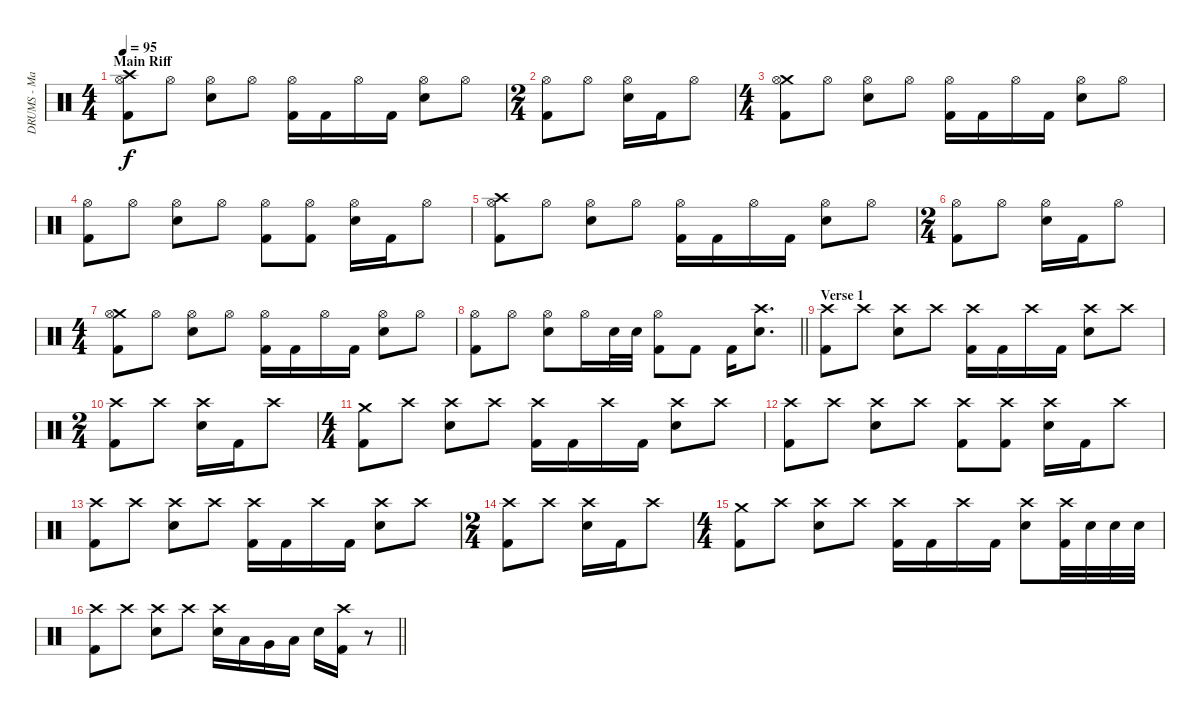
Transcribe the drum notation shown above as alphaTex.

\track ("DRUMS - Mario Duplantier" "DRUMS - Ma") {instrument percussion}
\staff {score}
\articulation defaults
\ts (4 4)
\section ("" "Main Riff")
\tempo 95
\clef neutral
\ks c
("Crash high (hit)" "Hi-Hat (open)" "Kick (hit) 2").8{dy f} "Hi-Hat (open)".8 ("Hi-Hat (open)" "Electric Snare (hit)").8 "Hi-Hat (open)".8 ("Hi-Hat (open)" "Kick (hit) 2").16 "Kick (hit) 2".16 "Hi-Hat (open)".16 "Kick (hit) 2".16 ("Hi-Hat (open)" "Electric Snare (hit)").8 "Hi-Hat (open)".8 |
\ts (2 4)
("Hi-Hat (open)" "Kick (hit) 2").8 "Hi-Hat (open)".8 ("Hi-Hat (open)" "Electric Snare (hit)").16 "Kick (hit) 2".16 "Hi-Hat (open)".8 |
\ts (4 4)
("Crash medium (hit)" "Hi-Hat (open)" "Kick (hit) 2").8 "Hi-Hat (open)".8 ("Hi-Hat (open)" "Electric Snare (hit)").8 "Hi-Hat (open)".8 ("Hi-Hat (open)" "Kick (hit) 2").16 "Kick (hit) 2".16 "Hi-Hat (open)".16 "Kick (hit) 2".16 ("Hi-Hat (open)" "Electric Snare (hit)").8 "Hi-Hat (open)".8 |
("Hi-Hat (open)" "Kick (hit) 2").8 "Hi-Hat (open)".8 ("Hi-Hat (open)" "Electric Snare (hit)").8 "Hi-Hat (open)".8 ("Hi-Hat (open)" "Kick (hit) 2").8 ("Hi-Hat (open)" "Kick (hit) 2").8 ("Hi-Hat (open)" "Electric Snare (hit)").16 "Kick (hit) 2".16 "Hi-Hat (open)".8 |
("Crash high (hit)" "Hi-Hat (open)" "Kick (hit) 2").8 "Hi-Hat (open)".8 ("Hi-Hat (open)" "Electric Snare (hit)").8 "Hi-Hat (open)".8 ("Hi-Hat (open)" "Kick (hit) 2").16 "Kick (hit) 2".16 "Hi-Hat (open)".16 "Kick (hit) 2".16 ("Hi-Hat (open)" "Electric Snare (hit)").8 "Hi-Hat (open)".8 |
\ts (2 4)
("Hi-Hat (open)" "Kick (hit) 2").8 "Hi-Hat (open)".8 ("Hi-Hat (open)" "Electric Snare (hit)").16 "Kick (hit) 2".16 "Hi-Hat (open)".8 |
\ts (4 4)
("Crash medium (hit)" "Hi-Hat (open)" "Kick (hit) 2").8 "Hi-Hat (open)".8 ("Hi-Hat (open)" "Electric Snare (hit)").8 "Hi-Hat (open)".8 ("Hi-Hat (open)" "Kick (hit) 2").16 "Kick (hit) 2".16 "Hi-Hat (open)".16 "Kick (hit) 2".16 ("Hi-Hat (open)" "Electric Snare (hit)").8 "Hi-Hat (open)".8 |
\barLineRight lightlight
("Hi-Hat (open)" "Kick (hit) 2").8 "Hi-Hat (open)".8 ("Hi-Hat (open)" "Electric Snare (hit)").8 "Hi-Hat (open)".16 "Electric Snare (hit)".32 "Electric Snare (hit)".32 ("Hi-Hat (open)" "Kick (hit) 2").8 "Kick (hit) 2".8 "Kick (hit) 2".16 ("Crash high (hit)" "Electric Snare (hit)").8{d} |
\section ("" "Verse 1")
("Crash high (hit)" "Kick (hit) 2").8 "Crash high (hit)".8 ("Crash high (hit)" "Electric Snare (hit)").8 "Crash high (hit)".8 ("Crash high (hit)" "Kick (hit) 2").16 "Kick (hit) 2".16 "Crash high (hit)".16 "Kick (hit) 2".16 ("Crash high (hit)" "Electric Snare (hit)").8 "Crash high (hit)".8 |
\ts (2 4)
("Crash high (hit)" "Kick (hit) 2").8 "Crash high (hit)".8 ("Crash high (hit)" "Electric Snare (hit)").16 "Kick (hit) 2".16 "Crash high (hit)".8 |
\ts (4 4)
("Crash medium (hit)" "Kick (hit) 2").8 "Crash high (hit)".8 ("Crash high (hit)" "Electric Snare (hit)").8 "Crash high (hit)".8 ("Crash high (hit)" "Kick (hit) 2").16 "Kick (hit) 2".16 "Crash high (hit)".16 "Kick (hit) 2".16 ("Crash high (hit)" "Electric Snare (hit)").8 "Crash high (hit)".8 |
("Crash high (hit)" "Kick (hit) 2").8 "Crash high (hit)".8 ("Crash high (hit)" "Electric Snare (hit)").8 "Crash high (hit)".8 ("Crash high (hit)" "Kick (hit) 2").8 ("Crash high (hit)" "Kick (hit) 2").8 ("Crash high (hit)" "Electric Snare (hit)").16 "Kick (hit) 2".16 "Crash high (hit)".8 |
("Crash high (hit)" "Kick (hit) 2").8 "Crash high (hit)".8 ("Crash high (hit)" "Electric Snare (hit)").8 "Crash high (hit)".8 ("Crash high (hit)" "Kick (hit) 2").16 "Kick (hit) 2".16 "Crash high (hit)".16 "Kick (hit) 2".16 ("Crash high (hit)" "Electric Snare (hit)").8 "Crash high (hit)".8 |
\ts (2 4)
("Crash high (hit)" "Kick (hit) 2").8 "Crash high (hit)".8 ("Crash high (hit)" "Electric Snare (hit)").16 "Kick (hit) 2".16 "Crash high (hit)".8 |
\ts (4 4)
("Crash medium (hit)" "Kick (hit) 2").8 "Crash high (hit)".8 ("Crash high (hit)" "Electric Snare (hit)").8 "Crash high (hit)".8 ("Crash high (hit)" "Kick (hit) 2").16 "Kick (hit) 2".16 "Crash high (hit)".16 "Kick (hit) 2".16 ("Crash high (hit)" "Electric Snare (hit)").8 ("Crash high (hit)" "Kick (hit) 2").32 "Electric Snare (hit)".32 "Electric Snare (hit)".32 "Electric Snare (hit)".32 |
\barLineRight lightlight
("Crash high (hit)" "Kick (hit) 2").8 "Crash high (hit)".8 ("Crash high (hit)" "Electric Snare (hit)").8 "Crash high (hit)".8 ("Crash high (hit)" "Electric Snare (hit)").16 "Low Tom (hit)".16 "Very Low Tom (hit)".16 "Low Floor Tom (hit)".16 "Electric Snare (hit)".16 ("Crash high (hit)" "Kick (hit) 2").16 r.8
